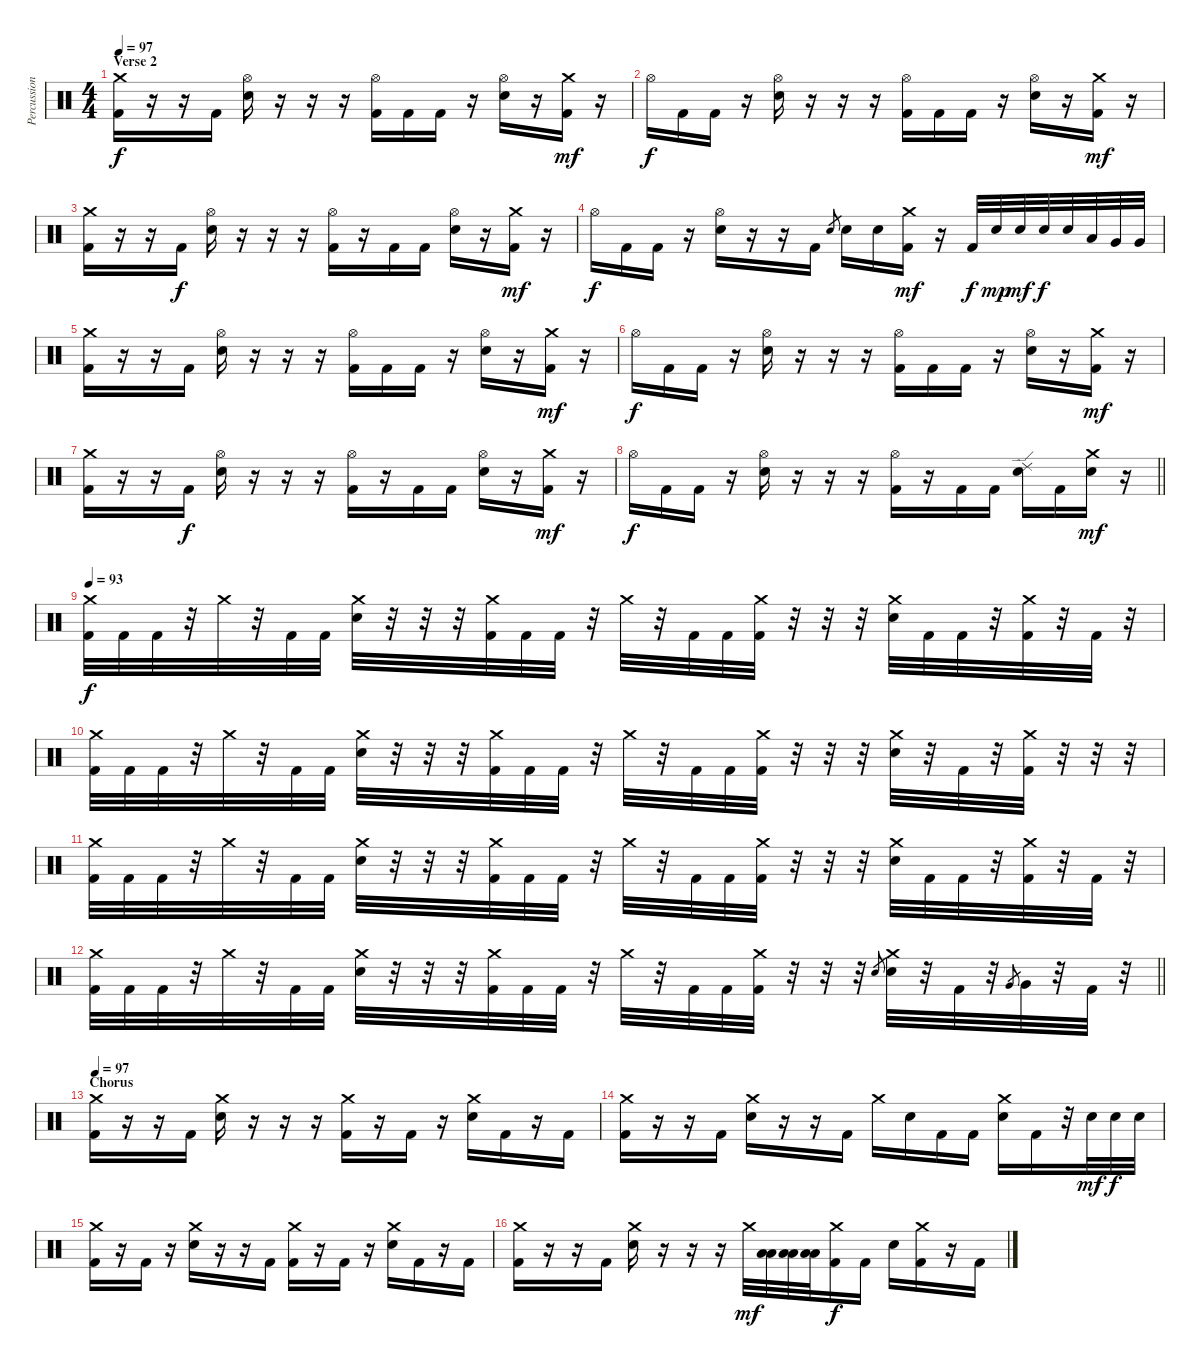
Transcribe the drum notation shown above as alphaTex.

\track ("Percussion" "Percussion") {instrument percussion}
\staff {score}
\articulation defaults
\ts (4 4)
\section ("" "Verse 2")
\tempo 97
\clef neutral
\ks c
("Crash medium (hit)" "Kick (hit) 2").16{dy f} r.16 r.16 "Kick (hit) 2".16 ("Hi-Hat (open)" "Electric Snare (hit)").16 r.16 r.16 r.16 ("Hi-Hat (open)" "Kick (hit) 2").16 "Kick (hit) 2".16 "Kick (hit) 2".16 r.16 ("Hi-Hat (open)" "Electric Snare (hit)").16 r.16 ("Crash medium (hit)" "Kick (hit) 2").16{dy mf} r.16 |
"Hi-Hat (open)".16{dy f} "Kick (hit) 2".16 "Kick (hit) 2".16 r.16 ("Hi-Hat (open)" "Electric Snare (hit)").16 r.16 r.16 r.16 ("Hi-Hat (open)" "Kick (hit) 2").16 "Kick (hit) 2".16 "Kick (hit) 2".16 r.16 ("Hi-Hat (open)" "Electric Snare (hit)").16 r.16 ("Crash medium (hit)" "Kick (hit) 2").16{dy mf} r.16 |
("Crash medium (hit)" "Kick (hit) 2").16 r.16 r.16 "Kick (hit) 2".16{dy f} ("Hi-Hat (open)" "Electric Snare (hit)").16 r.16 r.16 r.16 ("Hi-Hat (open)" "Kick (hit) 2").16 r.16 "Kick (hit) 2".16 "Kick (hit) 2".16 ("Hi-Hat (open)" "Electric Snare (hit)").16 r.16 ("Crash medium (hit)" "Kick (hit) 2").16{dy mf} r.16 |
"Hi-Hat (open)".16{dy f} "Kick (hit) 2".16 "Kick (hit) 2".16 r.16 ("Hi-Hat (open)" "Electric Snare (hit)").16 r.16 r.16 "Kick (hit) 2".16 "Electric Snare (hit)".8{gr} "Electric Snare (hit)".16 "Electric Snare (hit)".16 ("Crash medium (hit)" "Kick (hit) 2").16{dy mf} r.16 "Kick (hit) 2".32{dy f} "Electric Snare (hit)".32{dy mp} "Electric Snare (hit)".32{dy mf} "Electric Snare (hit)".32{dy f} "Electric Snare (hit)".32 "Low Tom (hit)".32 "Very Low Tom (hit)".32 "Very Low Tom (hit)".32 |
("Crash medium (hit)" "Kick (hit) 2").16 r.16 r.16 "Kick (hit) 2".16 ("Hi-Hat (open)" "Electric Snare (hit)").16 r.16 r.16 r.16 ("Hi-Hat (open)" "Kick (hit) 2").16 "Kick (hit) 2".16 "Kick (hit) 2".16 r.16 ("Hi-Hat (open)" "Electric Snare (hit)").16 r.16 ("Crash medium (hit)" "Kick (hit) 2").16{dy mf} r.16 |
"Hi-Hat (open)".16{dy f} "Kick (hit) 2".16 "Kick (hit) 2".16 r.16 ("Hi-Hat (open)" "Electric Snare (hit)").16 r.16 r.16 r.16 ("Hi-Hat (open)" "Kick (hit) 2").16 "Kick (hit) 2".16 "Kick (hit) 2".16 r.16 ("Hi-Hat (open)" "Electric Snare (hit)").16 r.16 ("Crash medium (hit)" "Kick (hit) 2").16{dy mf} r.16 |
("Crash medium (hit)" "Kick (hit) 2").16 r.16 r.16 "Kick (hit) 2".16{dy f} ("Hi-Hat (open)" "Electric Snare (hit)").16 r.16 r.16 r.16 ("Hi-Hat (open)" "Kick (hit) 2").16 r.16 "Kick (hit) 2".16 "Kick (hit) 2".16 ("Hi-Hat (open)" "Electric Snare (hit)").16 r.16 ("Crash medium (hit)" "Kick (hit) 2").16{dy mf} r.16 |
\barLineRight lightlight "Hi-Hat (open)".16{dy f} "Kick (hit) 2".16 "Kick (hit) 2".16
r.16 ("Hi-Hat (open)" "Electric Snare (hit)").16 r.16 r.16 r.16 ("Hi-Hat (open)" "Kick (hit) 2").16 r.16 "Kick (hit) 2".16 "Kick (hit) 2".16 ("Ride (edge) 2" "Electric Snare (hit)").16 "Kick (hit) 2".16 ("Crash medium (hit)" "Electric Snare (hit)").16{dy mf} r.16 |
\section ("" "")
\tempo 93
("Crash medium (hit)" "Kick (hit) 2").32{dy f} "Kick (hit) 2".32 "Kick (hit) 2".32 r.32 "Crash medium (hit)".32 r.32 "Kick (hit) 2".32 "Kick (hit) 2".32 ("Crash medium (hit)" "Electric Snare (hit)").32 r.32 r.32 r.32 ("Crash medium (hit)" "Kick (hit) 2").32 "Kick (hit) 2".32 "Kick (hit) 2".32 r.32 "Crash medium (hit)".32 r.32 "Kick (hit) 2".32 "Kick (hit) 2".32 ("Crash medium (hit)" "Kick (hit) 2").32 r.32 r.32 r.32 ("Crash medium (hit)" "Electric Snare (hit)").32 "Kick (hit) 2".32 "Kick (hit) 2".32 r.32 ("Crash medium (hit)" "Kick (hit) 2").32 r.32 "Kick (hit) 2".32 r.32 |
("Crash medium (hit)" "Kick (hit) 2").32 "Kick (hit) 2".32 "Kick (hit) 2".32 r.32 "Crash medium (hit)".32 r.32 "Kick (hit) 2".32 "Kick (hit) 2".32 ("Crash medium (hit)" "Electric Snare (hit)").32 r.32 r.32 r.32 ("Crash medium (hit)" "Kick (hit) 2").32 "Kick (hit) 2".32 "Kick (hit) 2".32 r.32 "Crash medium (hit)".32 r.32 "Kick (hit) 2".32 "Kick (hit) 2".32 ("Crash medium (hit)" "Kick (hit) 2").32 r.32 r.32 r.32 ("Crash medium (hit)" "Electric Snare (hit)").32 r.32 "Kick (hit) 2".32 r.32 ("Crash medium (hit)" "Kick (hit) 2").32 r.32 r.32 r.32 |
("Crash medium (hit)" "Kick (hit) 2").32 "Kick (hit) 2".32 "Kick (hit) 2".32 r.32 "Crash medium (hit)".32 r.32 "Kick (hit) 2".32 "Kick (hit) 2".32 ("Crash medium (hit)" "Electric Snare (hit)").32 r.32 r.32 r.32 ("Crash medium (hit)" "Kick (hit) 2").32 "Kick (hit) 2".32 "Kick (hit) 2".32 r.32 "Crash medium (hit)".32 r.32 "Kick (hit) 2".32 "Kick (hit) 2".32 ("Crash medium (hit)" "Kick (hit) 2").32 r.32 r.32 r.32 ("Crash medium (hit)" "Electric Snare (hit)").32 "Kick (hit) 2".32 "Kick (hit) 2".32 r.32 ("Crash medium (hit)" "Kick (hit) 2").32 r.32 "Kick (hit) 2".32 r.32 |
\barLineRight lightlight
("Crash medium (hit)" "Kick (hit) 2").32 "Kick (hit) 2".32 "Kick (hit) 2".32 r.32 "Crash medium (hit)".32 r.32 "Kick (hit) 2".32 "Kick (hit) 2".32 ("Crash medium (hit)" "Electric Snare (hit)").32 r.32 r.32 r.32 ("Crash medium (hit)" "Kick (hit) 2").32 "Kick (hit) 2".32 "Kick (hit) 2".32 r.32 "Crash medium (hit)".32 r.32 "Kick (hit) 2".32 "Kick (hit) 2".32 ("Crash medium (hit)" "Kick (hit) 2").32 r.32 r.32 r.32 "Electric Snare (hit)".8{gr} ("Crash medium (hit)" "Electric Snare (hit)").32 r.32 "Kick (hit) 2".32 r.32 "Very Low Tom (hit)".8{gr} "Very Low Tom (hit)".32 r.32 "Kick (hit) 2".32 r.32 |
\section ("" "Chorus")
\tempo 97
("Crash medium (hit)" "Kick (hit) 2").16 r.16 r.16 "Kick (hit) 2".16 ("Crash medium (hit)" "Electric Snare (hit)").16 r.16 r.16 r.16 ("Crash medium (hit)" "Kick (hit) 2").16 r.16 "Kick (hit) 2".16 r.16 ("Crash medium (hit)" "Electric Snare (hit)").16 "Kick (hit) 2".16 r.16 "Kick (hit) 2".16 |
("Crash medium (hit)" "Kick (hit) 2").16 r.16 r.16 "Kick (hit) 2".16 ("Crash medium (hit)" "Electric Snare (hit)").16 r.16 r.16 "Kick (hit) 2".16 "Crash medium (hit)".16 "Electric Snare (hit)".16 "Kick (hit) 2".16 "Kick (hit) 2".16 ("Crash medium (hit)" "Electric Snare (hit)").16 "Kick (hit) 2".16 r.32 "Electric Snare (hit)".32{dy mf} "Electric Snare (hit)".32{dy f} "Electric Snare (hit)".32 |
("Crash medium (hit)" "Kick (hit) 2").16 r.16 "Kick (hit) 2".16 r.16 ("Crash medium (hit)" "Electric Snare (hit)").16 r.16 r.16 "Kick (hit) 2".16 ("Crash medium (hit)" "Kick (hit) 2").16 r.16 "Kick (hit) 2".16 r.16 ("Crash medium (hit)" "Electric Snare (hit)").16 "Kick (hit) 2".16 r.16 "Kick (hit) 2".16 |
("Crash medium (hit)" "Kick (hit) 2").16 r.16 r.16 "Kick (hit) 2".16 ("Crash medium (hit)" "Electric Snare (hit)").16 r.16 r.16 r.16 "Crash medium (hit)".32{dy mf} ("Low Tom (hit)" "Low Tom (hit)").32 ("Low Tom (hit)" "Low Tom (hit)").32 ("Low Tom (hit)" "Low Tom (hit)").32 ("Crash medium (hit)" "Kick (hit) 2").16{dy f} "Kick (hit) 2".16 "Electric Snare (hit)".16 ("Crash medium (hit)" "Kick (hit) 2").16 r.16 "Kick (hit) 2".16
